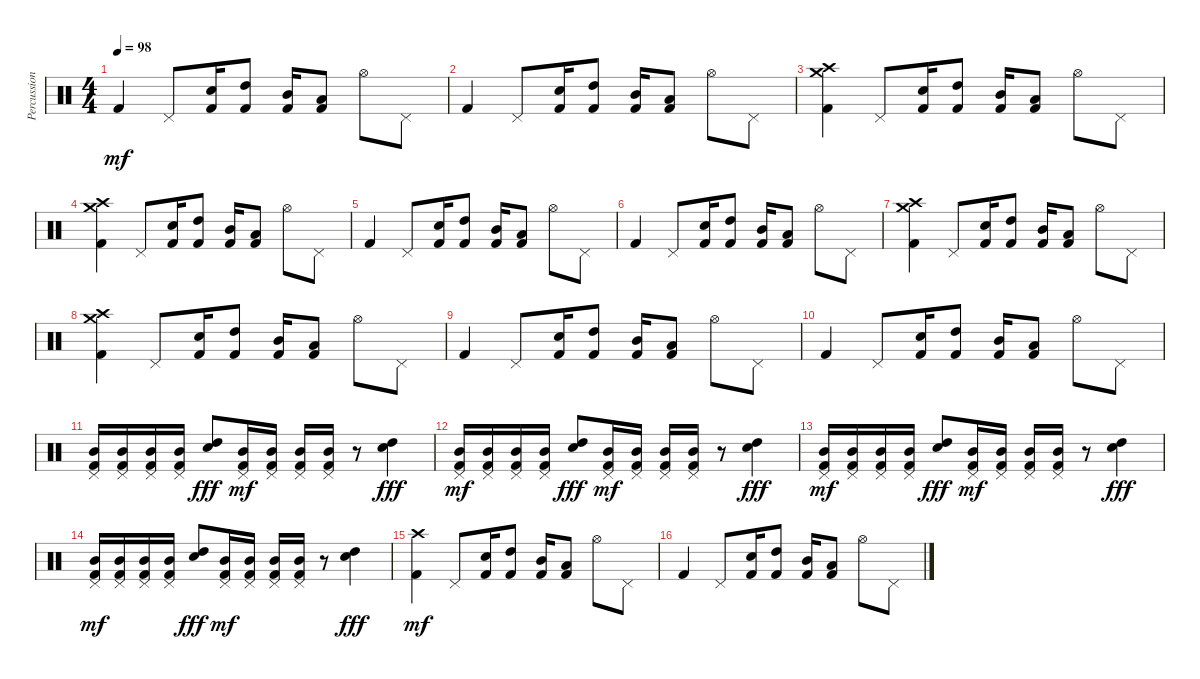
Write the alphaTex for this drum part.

\track ("Percussion" "Percussion") {instrument percussion}
\staff {score}
\articulation defaults
\ts (4 4)
\tempo 98
\clef neutral
\ks c "Kick (hit) 2".4{dy mf} "Pedal Hi-Hat (hit)".8
("Snare (hit) 2" "Kick (hit) 2").16 ("High Tom (hit)" "Kick (hit) 2").8 ("Mid Tom (hit)" "Kick (hit) 2").16 ("Low Tom (hit)" "Kick (hit) 2").8 "Hi-Hat (open)".8 "Pedal Hi-Hat (hit)".8 |
"Kick (hit) 2".4 "Pedal Hi-Hat (hit)".8 ("Snare (hit) 2" "Kick (hit) 2").16 ("High Tom (hit)" "Kick (hit) 2").8 ("Mid Tom (hit)" "Kick (hit) 2").16 ("Low Tom (hit)" "Kick (hit) 2").8 "Hi-Hat (open)".8 "Pedal Hi-Hat (hit)".8 |
("Crash high (hit)" "Crash medium (hit)" "Kick (hit) 2").4{volume 11} "Pedal Hi-Hat (hit)".8 ("Snare (hit) 2" "Kick (hit) 2").16 ("High Tom (hit)" "Kick (hit) 2").8 ("Mid Tom (hit)" "Kick (hit) 2").16 ("Low Tom (hit)" "Kick (hit) 2").8 "Hi-Hat (open)".8 "Pedal Hi-Hat (hit)".8 |
("Crash high (hit)" "Crash medium (hit)" "Kick (hit) 2").4{volume 11} "Pedal Hi-Hat (hit)".8 ("Snare (hit) 2" "Kick (hit) 2").16 ("High Tom (hit)" "Kick (hit) 2").8 ("Mid Tom (hit)" "Kick (hit) 2").16 ("Low Tom (hit)" "Kick (hit) 2").8 "Hi-Hat (open)".8 "Pedal Hi-Hat (hit)".8 |
"Kick (hit) 2".4 "Pedal Hi-Hat (hit)".8 ("Snare (hit) 2" "Kick (hit) 2").16 ("High Tom (hit)" "Kick (hit) 2").8 ("Mid Tom (hit)" "Kick (hit) 2").16 ("Low Tom (hit)" "Kick (hit) 2").8 "Hi-Hat (open)".8 "Pedal Hi-Hat (hit)".8 |
"Kick (hit) 2".4 "Pedal Hi-Hat (hit)".8 ("Snare (hit) 2" "Kick (hit) 2").16 ("High Tom (hit)" "Kick (hit) 2").8 ("Mid Tom (hit)" "Kick (hit) 2").16 ("Low Tom (hit)" "Kick (hit) 2").8 "Hi-Hat (open)".8 "Pedal Hi-Hat (hit)".8 |
("Crash high (hit)" "Crash medium (hit)" "Kick (hit) 2").4{volume 11} "Pedal Hi-Hat (hit)".8 ("Snare (hit) 2" "Kick (hit) 2").16 ("High Tom (hit)" "Kick (hit) 2").8 ("Mid Tom (hit)" "Kick (hit) 2").16 ("Low Tom (hit)" "Kick (hit) 2").8 "Hi-Hat (open)".8 "Pedal Hi-Hat (hit)".8 |
("Crash high (hit)" "Crash medium (hit)" "Kick (hit) 2").4{volume 11} "Pedal Hi-Hat (hit)".8 ("Snare (hit) 2" "Kick (hit) 2").16 ("High Tom (hit)" "Kick (hit) 2").8 ("Mid Tom (hit)" "Kick (hit) 2").16 ("Low Tom (hit)" "Kick (hit) 2").8 "Hi-Hat (open)".8 "Pedal Hi-Hat (hit)".8 |
"Kick (hit) 2".4 "Pedal Hi-Hat (hit)".8 ("Snare (hit) 2" "Kick (hit) 2").16 ("High Tom (hit)" "Kick (hit) 2").8 ("Mid Tom (hit)" "Kick (hit) 2").16 ("Low Tom (hit)" "Kick (hit) 2").8 "Hi-Hat (open)".8 "Pedal Hi-Hat (hit)".8 |
"Kick (hit) 2".4 "Pedal Hi-Hat (hit)".8 ("Snare (hit) 2" "Kick (hit) 2").16 ("High Tom (hit)" "Kick (hit) 2").8 ("Mid Tom (hit)" "Kick (hit) 2").16 ("Low Tom (hit)" "Kick (hit) 2").8 "Hi-Hat (open)".8 "Pedal Hi-Hat (hit)".8 |
("Pedal Hi-Hat (hit)" "Mid Tom (hit)" "Kick (hit) 2").16 ("Pedal Hi-Hat (hit)" "Mid Tom (hit)" "Kick (hit) 2").16 ("Pedal Hi-Hat (hit)" "Mid Tom (hit)" "Kick (hit) 2").16 ("Pedal Hi-Hat (hit)" "Mid Tom (hit)" "Kick (hit) 2").16 ("Snare (hit) 2" "High Tom (hit)").8{dy fff} ("Pedal Hi-Hat (hit)" "Mid Tom (hit)" "Kick (hit) 2").16{dy mf} ("Pedal Hi-Hat (hit)" "Mid Tom (hit)" "Kick (hit) 2").16 ("Pedal Hi-Hat (hit)" "Mid Tom (hit)" "Kick (hit) 2").16 ("Pedal Hi-Hat (hit)" "Mid Tom (hit)" "Kick (hit) 2").16 r.8 ("Snare (hit) 2" "High Tom (hit)").4{dy fff} |
("Pedal Hi-Hat (hit)" "Mid Tom (hit)" "Kick (hit) 2").16{dy mf} ("Pedal Hi-Hat (hit)" "Mid Tom (hit)" "Kick (hit) 2").16 ("Pedal Hi-Hat (hit)" "Mid Tom (hit)" "Kick (hit) 2").16 ("Pedal Hi-Hat (hit)" "Mid Tom (hit)" "Kick (hit) 2").16 ("Snare (hit) 2" "High Tom (hit)").8{dy fff} ("Pedal Hi-Hat (hit)" "Mid Tom (hit)" "Kick (hit) 2").16{dy mf} ("Pedal Hi-Hat (hit)" "Mid Tom (hit)" "Kick (hit) 2").16 ("Pedal Hi-Hat (hit)" "Mid Tom (hit)" "Kick (hit) 2").16 ("Pedal Hi-Hat (hit)" "Mid Tom (hit)" "Kick (hit) 2").16 r.8 ("Snare (hit) 2" "High Tom (hit)").4{dy fff} |
("Pedal Hi-Hat (hit)" "Mid Tom (hit)" "Kick (hit) 2").16{dy mf} ("Pedal Hi-Hat (hit)" "Mid Tom (hit)" "Kick (hit) 2").16 ("Pedal Hi-Hat (hit)" "Mid Tom (hit)" "Kick (hit) 2").16 ("Pedal Hi-Hat (hit)" "Mid Tom (hit)" "Kick (hit) 2").16 ("Snare (hit) 2" "High Tom (hit)").8{dy fff} ("Pedal Hi-Hat (hit)" "Mid Tom (hit)" "Kick (hit) 2").16{dy mf} ("Pedal Hi-Hat (hit)" "Mid Tom (hit)" "Kick (hit) 2").16 ("Pedal Hi-Hat (hit)" "Mid Tom (hit)" "Kick (hit) 2").16 ("Pedal Hi-Hat (hit)" "Mid Tom (hit)" "Kick (hit) 2").16 r.8 ("Snare (hit) 2" "High Tom (hit)").4{dy fff} |
("Pedal Hi-Hat (hit)" "Mid Tom (hit)" "Kick (hit) 2").16{dy mf} ("Pedal Hi-Hat (hit)" "Mid Tom (hit)" "Kick (hit) 2").16 ("Pedal Hi-Hat (hit)" "Mid Tom (hit)" "Kick (hit) 2").16 ("Pedal Hi-Hat (hit)" "Mid Tom (hit)" "Kick (hit) 2").16 ("Snare (hit) 2" "High Tom (hit)").8{dy fff} ("Pedal Hi-Hat (hit)" "Mid Tom (hit)" "Kick (hit) 2").16{dy mf} ("Pedal Hi-Hat (hit)" "Mid Tom (hit)" "Kick (hit) 2").16 ("Pedal Hi-Hat (hit)" "Mid Tom (hit)" "Kick (hit) 2").16 ("Pedal Hi-Hat (hit)" "Mid Tom (hit)" "Kick (hit) 2").16 r.8 ("Snare (hit) 2" "High Tom (hit)").4{dy fff} |
("Crash high (hit)" "Kick (hit) 2").4{dy mf} "Pedal Hi-Hat (hit)".8 ("Snare (hit) 2" "Kick (hit) 2").16 ("High Tom (hit)" "Kick (hit) 2").8 ("Mid Tom (hit)" "Kick (hit) 2").16 ("Low Tom (hit)" "Kick (hit) 2").8 "Hi-Hat (open)".8 "Pedal Hi-Hat (hit)".8 |
"Kick (hit) 2".4 "Pedal Hi-Hat (hit)".8 ("Snare (hit) 2" "Kick (hit) 2").16 ("High Tom (hit)" "Kick (hit) 2").8 ("Mid Tom (hit)" "Kick (hit) 2").16 ("Low Tom (hit)" "Kick (hit) 2").8 "Hi-Hat (open)".8 "Pedal Hi-Hat (hit)".8
